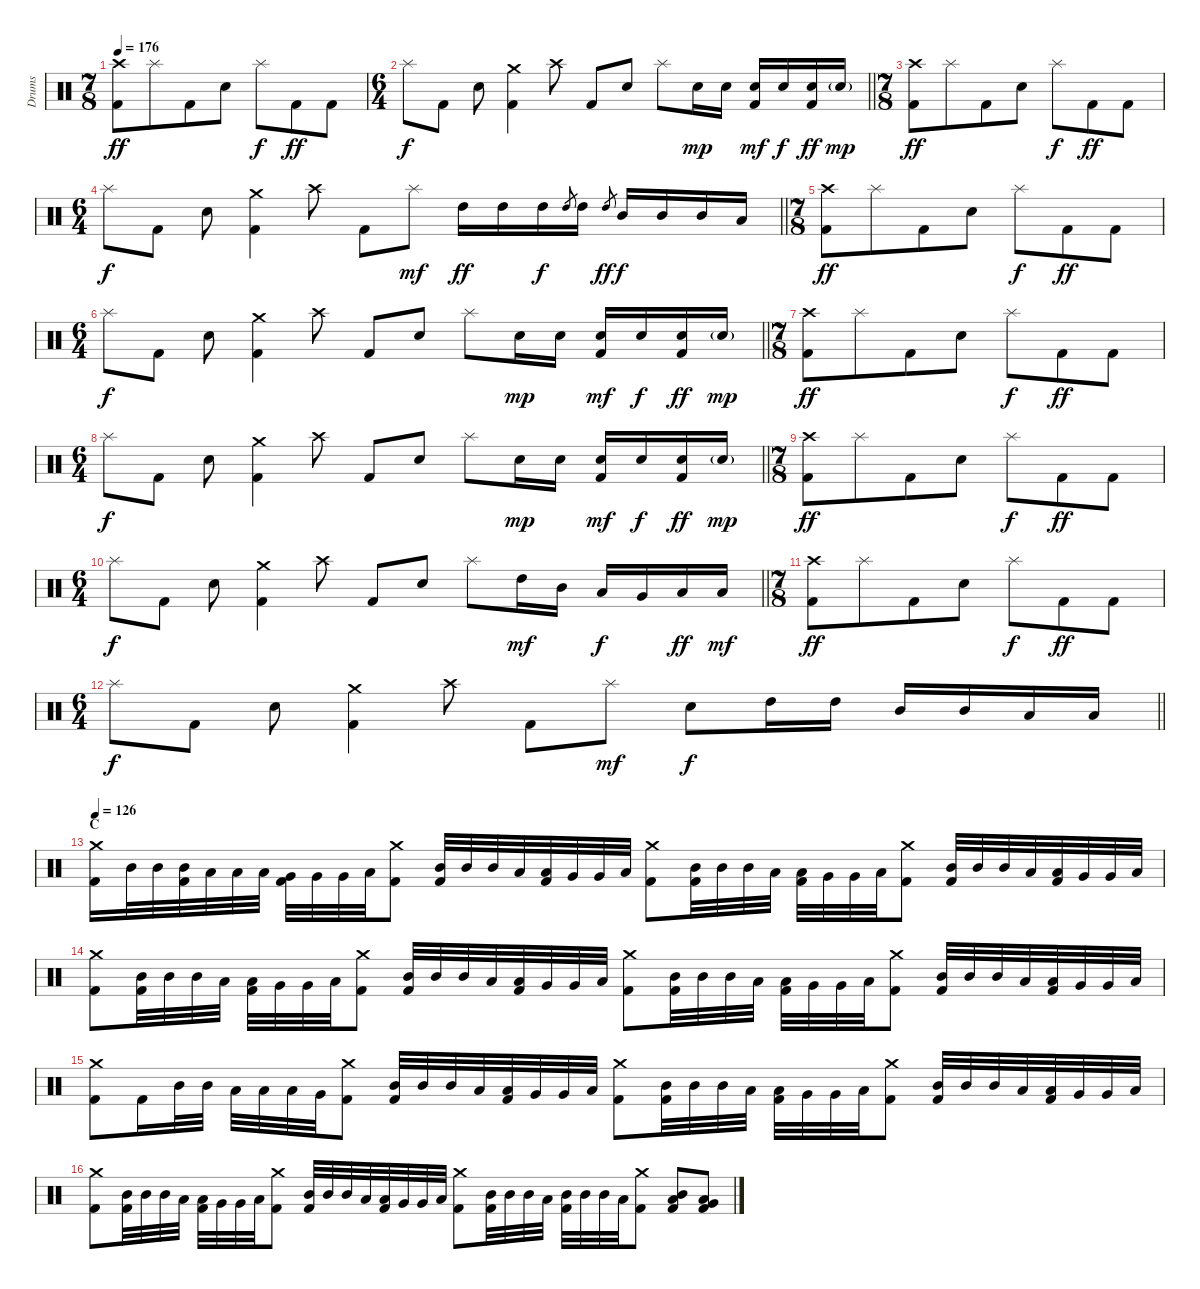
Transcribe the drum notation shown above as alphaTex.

\track ("Drums" "Drums") {instrument percussion}
\staff {score}
\articulation defaults
\ts (7 8)
\tempo 176
\clef neutral
\ks c
("Crash high (hit)" "Kick (hit) 2").8{dy ff} "Splash (hit)".8 "Kick (hit) 2".8 "Electric Snare (hit)".8 "Splash (hit)".8{dy f} "Kick (hit) 2".8{dy ff} "Kick (hit) 2".8 |
\ts (6 4)
\barLineRight lightlight "Splash (hit)".8{dy f} "Kick (hit) 2".8 "Electric Snare (hit)".8
("Crash medium (hit)" "Kick (hit) 2").4 "Crash high (hit)".8 "Kick (hit) 2".8 "Electric Snare (hit)".8 "Splash (hit)".8 "Electric Snare (hit)".16{dy mp} "Electric Snare (hit)".16 ("Electric Snare (hit)" "Kick (hit) 2").16{dy mf} "Electric Snare (hit)".16{dy f} ("Electric Snare (hit)" "Kick (hit) 2").16{dy ff} "Electric Snare (hit)"{g}.16{dy mp} |
\ts (7 8)
("Crash high (hit)" "Kick (hit) 2").8{dy ff} "Splash (hit)".8 "Kick (hit) 2".8 "Electric Snare (hit)".8 "Splash (hit)".8{dy f} "Kick (hit) 2".8{dy ff} "Kick (hit) 2".8 |
\ts (6 4)
\barLineRight lightlight "Splash (hit)".8{dy f} "Kick (hit) 2".8 "Electric Snare (hit)".8
("Crash medium (hit)" "Kick (hit) 2").4 "Crash high (hit)".8 "Kick (hit) 2".8 "Splash (hit)".8{dy mf} "High Tom (hit)".16{dy ff} "High Tom (hit)".16 "High Tom (hit)".16{dy f} "High Tom (hit)".8{gr} "High Tom (hit)".16 "High Tom (hit)".8{gr dy ff} "Mid Tom (hit)".16{dy f} "Mid Tom (hit)".16 "Mid Tom (hit)".16 "Low Tom (hit)".16 |
\ts (7 8)
\section ("" "")
("Crash high (hit)" "Kick (hit) 2").8{dy ff} "Splash (hit)".8 "Kick (hit) 2".8 "Electric Snare (hit)".8 "Splash (hit)".8{dy f} "Kick (hit) 2".8{dy ff} "Kick (hit) 2".8 |
\ts (6 4)
\barLineRight lightlight "Splash (hit)".8{dy f} "Kick (hit) 2".8 "Electric Snare (hit)".8
("Crash medium (hit)" "Kick (hit) 2").4 "Crash high (hit)".8 "Kick (hit) 2".8 "Electric Snare (hit)".8 "Splash (hit)".8 "Electric Snare (hit)".16{dy mp} "Electric Snare (hit)".16 ("Electric Snare (hit)" "Kick (hit) 2").16{dy mf} "Electric Snare (hit)".16{dy f} ("Electric Snare (hit)" "Kick (hit) 2").16{dy ff} "Electric Snare (hit)"{g}.16{dy mp} |
\ts (7 8)
("Crash high (hit)" "Kick (hit) 2").8{dy ff} "Splash (hit)".8 "Kick (hit) 2".8 "Electric Snare (hit)".8 "Splash (hit)".8{dy f} "Kick (hit) 2".8{dy ff} "Kick (hit) 2".8 |
\ts (6 4)
\barLineRight lightlight "Splash (hit)".8{dy f} "Kick (hit) 2".8 "Electric Snare (hit)".8
("Crash medium (hit)" "Kick (hit) 2").4 "Crash high (hit)".8 "Kick (hit) 2".8 "Electric Snare (hit)".8 "Splash (hit)".8 "Electric Snare (hit)".16{dy mp} "Electric Snare (hit)".16 ("Electric Snare (hit)" "Kick (hit) 2").16{dy mf} "Electric Snare (hit)".16{dy f} ("Electric Snare (hit)" "Kick (hit) 2").16{dy ff} "Electric Snare (hit)"{g}.16{dy mp} |
\ts (7 8)
("Crash high (hit)" "Kick (hit) 2").8{dy ff} "Splash (hit)".8 "Kick (hit) 2".8 "Electric Snare (hit)".8 "Splash (hit)".8{dy f} "Kick (hit) 2".8{dy ff} "Kick (hit) 2".8 |
\ts (6 4)
\barLineRight lightlight "Splash (hit)".8{dy f} "Kick (hit) 2".8 "Electric Snare (hit)".8
("Crash medium (hit)" "Kick (hit) 2").4 "Crash high (hit)".8 "Kick (hit) 2".8 "Electric Snare (hit)".8 "Splash (hit)".8 "High Tom (hit)".16{dy mf} "Mid Tom (hit)".16 "Low Tom (hit)".16{dy f} "Very Low Tom (hit)".16 "Low Floor Tom (hit)".16{dy ff} "Low Floor Tom (hit)".16{dy mf} |
\ts (7 8)
("Crash high (hit)" "Kick (hit) 2").8{dy ff} "Splash (hit)".8 "Kick (hit) 2".8 "Electric Snare (hit)".8 "Splash (hit)".8{dy f} "Kick (hit) 2".8{dy ff} "Kick (hit) 2".8 |
\ts (6 4)
\barLineRight lightlight "Splash (hit)".8{dy f} "Kick (hit) 2".8 "Electric Snare (hit)".8
("Crash medium (hit)" "Kick (hit) 2").4 "Crash high (hit)".8 "Kick (hit) 2".8 "Splash (hit)".8{dy mf} "Electric Snare (hit)".8{dy f} "High Tom (hit)".16 "High Tom (hit)".16 "Mid Tom (hit)".16 "Mid Tom (hit)".16 "Low Tom (hit)".16 "Low Floor Tom (hit)".16 |
\section ("" "C")
\tempo 126
("Crash medium (hit)" "Kick (hit) 2").16 "Mid Tom (hit)".32 "Mid Tom (hit)".32 ("Mid Tom (hit)" "Kick (hit) 2").32 "Low Tom (hit)".32 "Low Tom (hit)".32 "Low Tom (hit)".32 ("Very Low Tom (hit)" "Kick (hit) 2").32 "Very Low Tom (hit)".32 "Very Low Tom (hit)".32 "Low Floor Tom (hit)".32 ("Crash medium (hit)" "Kick (hit) 2").8 ("Mid Tom (hit)" "Kick (hit) 2").32 "Mid Tom (hit)".32 "Mid Tom (hit)".32 "Low Tom (hit)".32 ("Low Tom (hit)" "Kick (hit) 2").32 "Very Low Tom (hit)".32 "Very Low Tom (hit)".32 "Low Floor Tom (hit)".32 ("Crash medium (hit)" "Kick (hit) 2").8 ("Mid Tom (hit)" "Kick (hit) 2").32 "Mid Tom (hit)".32 "Mid Tom (hit)".32 "Low Tom (hit)".32 ("Low Tom (hit)" "Kick (hit) 2").32 "Very Low Tom (hit)".32 "Very Low Tom (hit)".32 "Low Floor Tom (hit)".32 ("Crash medium (hit)" "Kick (hit) 2").8 ("Mid Tom (hit)" "Kick (hit) 2").32 "Mid Tom (hit)".32 "Mid Tom (hit)".32 "Low Tom (hit)".32 ("Low Tom (hit)" "Kick (hit) 2").32 "Very Low Tom (hit)".32 "Very Low Tom (hit)".32 "Low Floor Tom (hit)".32 |
("Crash medium (hit)" "Kick (hit) 2").8 ("Mid Tom (hit)" "Kick (hit) 2").32 "Mid Tom (hit)".32 "Mid Tom (hit)".32 "Low Tom (hit)".32 ("Low Tom (hit)" "Kick (hit) 2").32 "Very Low Tom (hit)".32 "Very Low Tom (hit)".32 "Low Floor Tom (hit)".32 ("Crash medium (hit)" "Kick (hit) 2").8 ("Mid Tom (hit)" "Kick (hit) 2").32 "Mid Tom (hit)".32 "Mid Tom (hit)".32 "Low Tom (hit)".32 ("Low Tom (hit)" "Kick (hit) 2").32 "Very Low Tom (hit)".32 "Very Low Tom (hit)".32 "Low Floor Tom (hit)".32 ("Crash medium (hit)" "Kick (hit) 2").8 ("Mid Tom (hit)" "Kick (hit) 2").32 "Mid Tom (hit)".32 "Mid Tom (hit)".32 "Low Tom (hit)".32 ("Low Tom (hit)" "Kick (hit) 2").32 "Very Low Tom (hit)".32 "Very Low Tom (hit)".32 "Low Floor Tom (hit)".32 ("Crash medium (hit)" "Kick (hit) 2").8 ("Mid Tom (hit)" "Kick (hit) 2").32 "Mid Tom (hit)".32 "Mid Tom (hit)".32 "Low Tom (hit)".32 ("Low Tom (hit)" "Kick (hit) 2").32 "Very Low Tom (hit)".32 "Very Low Tom (hit)".32 "Low Floor Tom (hit)".32 |
("Crash medium (hit)" "Kick (hit) 2").8 "Kick (hit) 2".16 "Mid Tom (hit)".32 "Mid Tom (hit)".32 "Low Tom (hit)".32 "Low Tom (hit)".32 "Low Tom (hit)".32 "Very Low Tom (hit)".32 ("Crash medium (hit)" "Kick (hit) 2").8 ("Mid Tom (hit)" "Kick (hit) 2").32 "Mid Tom (hit)".32 "Mid Tom (hit)".32 "Low Tom (hit)".32 ("Low Tom (hit)" "Kick (hit) 2").32 "Very Low Tom (hit)".32 "Very Low Tom (hit)".32 "Low Floor Tom (hit)".32 ("Crash medium (hit)" "Kick (hit) 2").8 ("Mid Tom (hit)" "Kick (hit) 2").32 "Mid Tom (hit)".32 "Mid Tom (hit)".32 "Low Tom (hit)".32 ("Low Tom (hit)" "Kick (hit) 2").32 "Very Low Tom (hit)".32 "Very Low Tom (hit)".32 "Low Floor Tom (hit)".32 ("Crash medium (hit)" "Kick (hit) 2").8 ("Mid Tom (hit)" "Kick (hit) 2").32 "Mid Tom (hit)".32 "Mid Tom (hit)".32 "Low Tom (hit)".32 ("Low Tom (hit)" "Kick (hit) 2").32 "Very Low Tom (hit)".32 "Very Low Tom (hit)".32 "Low Floor Tom (hit)".32 |
("Crash medium (hit)" "Kick (hit) 2").8 ("Mid Tom (hit)" "Kick (hit) 2").32 "Mid Tom (hit)".32 "Mid Tom (hit)".32 "Low Tom (hit)".32 ("Low Tom (hit)" "Kick (hit) 2").32 "Very Low Tom (hit)".32 "Very Low Tom (hit)".32 "Low Floor Tom (hit)".32 ("Crash medium (hit)" "Kick (hit) 2").8 ("Mid Tom (hit)" "Kick (hit) 2").32 "Mid Tom (hit)".32 "Mid Tom (hit)".32 "Low Tom (hit)".32 ("Low Tom (hit)" "Kick (hit) 2").32 "Very Low Tom (hit)".32 "Very Low Tom (hit)".32 "Low Floor Tom (hit)".32 ("Crash medium (hit)" "Kick (hit) 2").8 ("Mid Tom (hit)" "Kick (hit) 2").32 "Mid Tom (hit)".32 "Mid Tom (hit)".32 "Low Tom (hit)".32 ("Mid Tom (hit)" "Kick (hit) 2").32 "Mid Tom (hit)".32 "Mid Tom (hit)".32 "Low Tom (hit)".32 ("Crash medium (hit)" "Kick (hit) 2").8 ("Mid Tom (hit)" "Low Tom (hit)" "Kick (hit) 2").8 ("Low Tom (hit)" "Very Low Tom (hit)" "Kick (hit) 2").8
